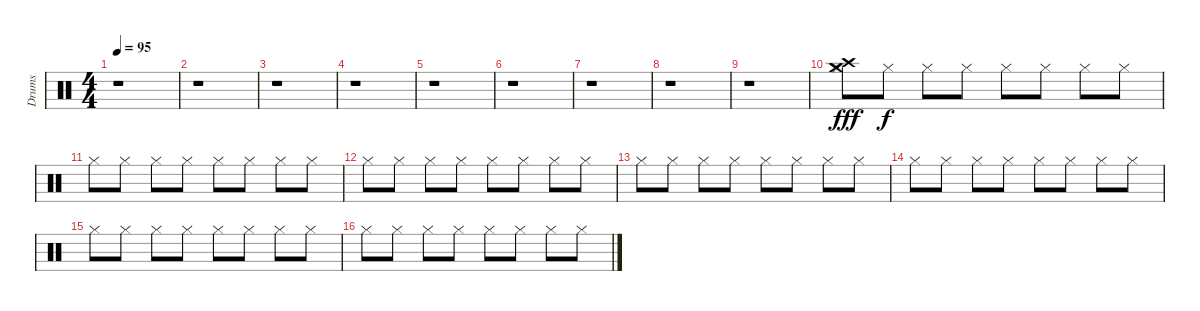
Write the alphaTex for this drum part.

\bracketExtendMode groupsimilarinstruments
\otherSystemsTrackNameOrientation horizontal
\track ("Drumkit" "Drums") {instrument percussion}
\staff {score}
\articulation defaults
\ts (4 4)
\beaming (8 2 2 2 2)
\tempo 95
\clef neutral
\ks c
r.1{dy fff} |
r.1 |
r.1 |
r.1 |
r.1 |
r.1 |
r.1 |
r.1 |
r.1 |
("Crash high (hit)" "Crash medium (hit)" "Hi-Hat (closed)").8 "Hi-Hat (closed)".8{dy f} "Hi-Hat (closed)".8 "Hi-Hat (closed)".8 "Hi-Hat (closed)".8 "Hi-Hat (closed)".8 "Hi-Hat (closed)".8 "Hi-Hat (closed)".8 |
"Hi-Hat (closed)".8 "Hi-Hat (closed)".8 "Hi-Hat (closed)".8 "Hi-Hat (closed)".8 "Hi-Hat (closed)".8 "Hi-Hat (closed)".8 "Hi-Hat (closed)".8 "Hi-Hat (closed)".8 |
"Hi-Hat (closed)".8 "Hi-Hat (closed)".8 "Hi-Hat (closed)".8 "Hi-Hat (closed)".8 "Hi-Hat (closed)".8 "Hi-Hat (closed)".8 "Hi-Hat (closed)".8 "Hi-Hat (closed)".8 |
"Hi-Hat (closed)".8 "Hi-Hat (closed)".8 "Hi-Hat (closed)".8 "Hi-Hat (closed)".8 "Hi-Hat (closed)".8 "Hi-Hat (closed)".8 "Hi-Hat (closed)".8 "Hi-Hat (closed)".8 |
"Hi-Hat (closed)".8 "Hi-Hat (closed)".8 "Hi-Hat (closed)".8 "Hi-Hat (closed)".8 "Hi-Hat (closed)".8 "Hi-Hat (closed)".8 "Hi-Hat (closed)".8 "Hi-Hat (closed)".8 |
"Hi-Hat (closed)".8 "Hi-Hat (closed)".8 "Hi-Hat (closed)".8 "Hi-Hat (closed)".8 "Hi-Hat (closed)".8 "Hi-Hat (closed)".8 "Hi-Hat (closed)".8 "Hi-Hat (closed)".8 |
"Hi-Hat (closed)".8 "Hi-Hat (closed)".8 "Hi-Hat (closed)".8 "Hi-Hat (closed)".8 "Hi-Hat (closed)".8 "Hi-Hat (closed)".8 "Hi-Hat (closed)".8 "Hi-Hat (closed)".8
